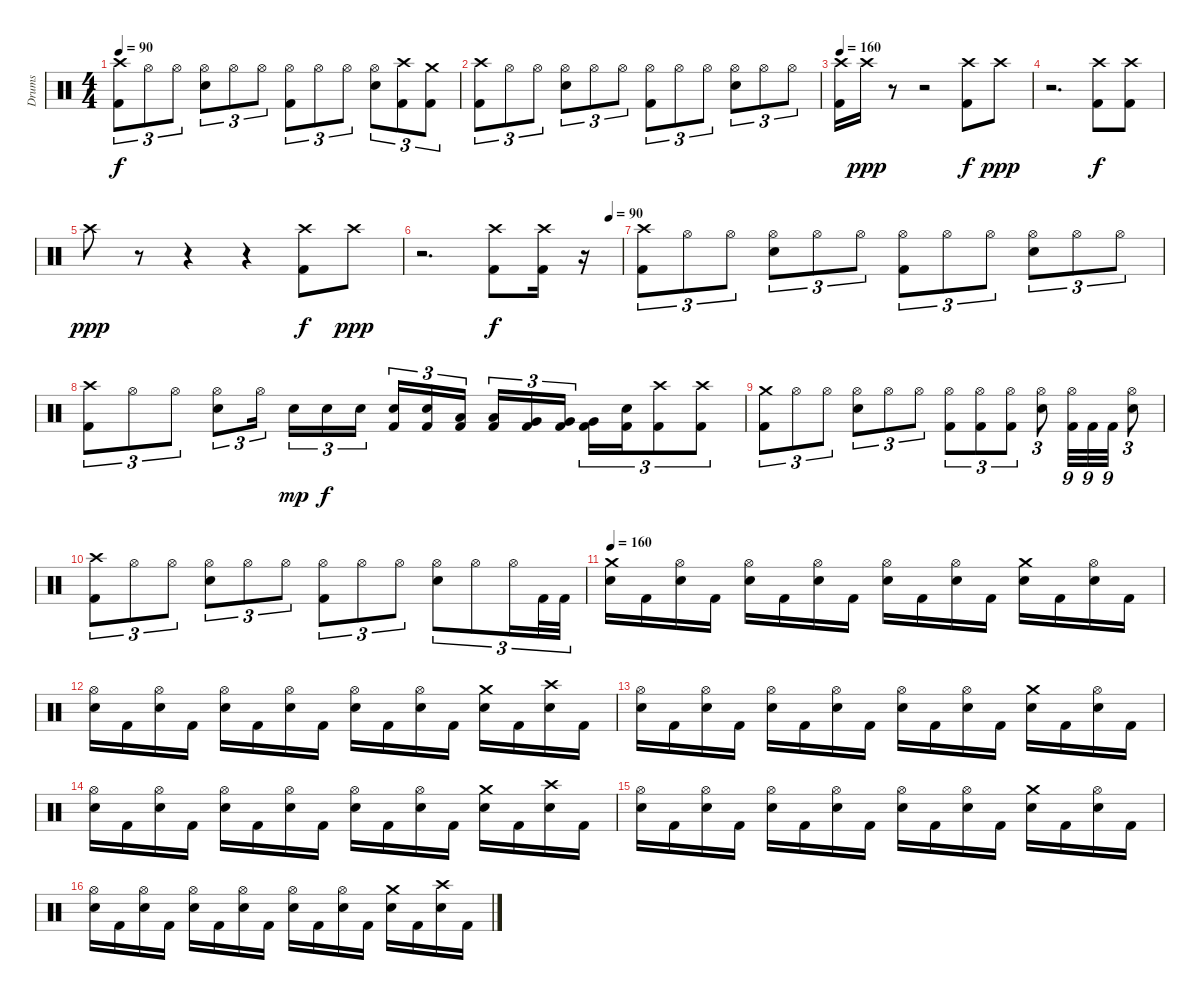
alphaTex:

\track ("Drums" "Drums") {instrument percussion}
\staff {score}
\articulation defaults
\ts (4 4)
\tempo 90
\clef neutral
\ks c
("Crash high (hit)" "Kick (hit) 2").8{tu (3 2) dy f} "Hi-Hat (open)".8{tu (3 2)} "Hi-Hat (open)".8{tu (3 2)} ("Hi-Hat (open)" "Electric Snare (hit)").8{tu (3 2)} "Hi-Hat (open)".8{tu (3 2)} "Hi-Hat (open)".8{tu (3 2)} ("Hi-Hat (open)" "Kick (hit) 2").8{tu (3 2)} "Hi-Hat (open)".8{tu (3 2)} "Hi-Hat (open)".8{tu (3 2)} ("Hi-Hat (open)" "Electric Snare (hit)").8{tu (3 2)} ("Crash high (hit)" "Kick (hit) 2").8{tu (3 2)} ("Crash medium (hit)" "Kick (hit) 2").8{tu (3 2)} |
("Crash high (hit)" "Kick (hit) 2").8{tu (3 2)} "Hi-Hat (open)".8{tu (3 2)} "Hi-Hat (open)".8{tu (3 2)} ("Hi-Hat (open)" "Electric Snare (hit)").8{tu (3 2)} "Hi-Hat (open)".8{tu (3 2)} "Hi-Hat (open)".8{tu (3 2)} ("Hi-Hat (open)" "Kick (hit) 2").8{tu (3 2)} "Hi-Hat (open)".8{tu (3 2)} "Hi-Hat (open)".8{tu (3 2)} ("Hi-Hat (open)" "Electric Snare (hit)").8{tu (3 2)} "Hi-Hat (open)".8{tu (3 2)} "Hi-Hat (open)".8{tu (3 2)} |
\tempo 160
("Crash high (hit)" "Kick (hit) 2").16 "Crash high (hit)".16{dy ppp} r.8 r.2 ("Crash high (hit)" "Kick (hit) 2").8{dy f} "Crash high (hit)".8{dy ppp} |
r.2{d} ("Crash high (hit)" "Kick (hit) 2").8{dy f} ("Crash high (hit)" "Kick (hit) 2").8 |
"Crash high (hit)".8{dy ppp} r.8 r.4 r.4 ("Crash high (hit)" "Kick (hit) 2").8{dy f} "Crash high (hit)".8{dy ppp} |
\tempo (90 0.9375)
r.2{d} ("Crash high (hit)" "Kick (hit) 2").8{dy f} ("Crash high (hit)" "Kick (hit) 2").16 r.16 |
("Crash high (hit)" "Kick (hit) 2").8{tu (3 2)} "Hi-Hat (open)".8{tu (3 2)} "Hi-Hat (open)".8{tu (3 2)} ("Hi-Hat (open)" "Electric Snare (hit)").8{tu (3 2)} "Hi-Hat (open)".8{tu (3 2)} "Hi-Hat (open)".8{tu (3 2)} ("Hi-Hat (open)" "Kick (hit) 2").8{tu (3 2)} "Hi-Hat (open)".8{tu (3 2)} "Hi-Hat (open)".8{tu (3 2)} ("Hi-Hat (open)" "Electric Snare (hit)").8{tu (3 2)} "Hi-Hat (open)".8{tu (3 2)} "Hi-Hat (open)".8{tu (3 2)} |
("Crash high (hit)" "Kick (hit) 2").8{tu (3 2)} "Hi-Hat (open)".8{tu (3 2)} "Hi-Hat (open)".8{tu (3 2)} ("Hi-Hat (open)" "Electric Snare (hit)").8{tu (3 2)} "Hi-Hat (open)".16{tu (3 2)} "Electric Snare (hit)".16{tu (3 2) dy mp} "Electric Snare (hit)".16{tu (3 2) dy f} "Electric Snare (hit)".16{tu (3 2)} ("Electric Snare (hit)" "Kick (hit) 2").16{tu (3 2)} ("Electric Snare (hit)" "Kick (hit) 2").16{tu (3 2)} ("Low Tom (hit)" "Kick (hit) 2").16{tu (3 2)} ("Low Tom (hit)" "Kick (hit) 2").16{tu (3 2)} ("Very Low Tom (hit)" "Kick (hit) 2").16{tu (3 2)} ("Very Low Tom (hit)" "Kick (hit) 2").16{tu (3 2)} ("Very Low Tom (hit)" "Kick (hit) 2").16{tu (3 2)} ("Electric Snare (hit)" "Kick (hit) 2").16{tu (3 2)} ("Crash high (hit)" "Kick (hit) 2").8{tu (3 2)} ("Crash high (hit)" "Kick (hit) 2").8{tu (3 2)} |
("Crash medium (hit)" "Kick (hit) 2").8{tu (3 2)} "Hi-Hat (open)".8{tu (3 2)} "Hi-Hat (open)".8{tu (3 2)} ("Hi-Hat (open)" "Electric Snare (hit)").8{tu (3 2)} "Hi-Hat (open)".8{tu (3 2)} "Hi-Hat (open)".8{tu (3 2)} ("Hi-Hat (open)" "Kick (hit) 2").8{tu (3 2)} ("Hi-Hat (open)" "Kick (hit) 2").8{tu (3 2)} ("Hi-Hat (open)" "Kick (hit) 2").8{tu (3 2)} ("Hi-Hat (open)" "Electric Snare (hit)").8{tu (3 2)} ("Hi-Hat (open)" "Kick (hit) 2").32{tu (9 8)} "Kick (hit) 2".32{tu (9 8)} "Kick (hit) 2".32{tu (9 8)} ("Hi-Hat (open)" "Electric Snare (hit)").8{tu (3 2)} |
("Crash high (hit)" "Kick (hit) 2").8{tu (3 2)} "Hi-Hat (open)".8{tu (3 2)} "Hi-Hat (open)".8{tu (3 2)} ("Hi-Hat (open)" "Electric Snare (hit)").8{tu (3 2)} "Hi-Hat (open)".8{tu (3 2)} "Hi-Hat (open)".8{tu (3 2)} ("Hi-Hat (open)" "Kick (hit) 2").8{tu (3 2)} "Hi-Hat (open)".8{tu (3 2)} "Hi-Hat (open)".8{tu (3 2)} ("Hi-Hat (open)" "Electric Snare (hit)").8{tu (3 2)} "Hi-Hat (open)".8{tu (3 2)} "Hi-Hat (open)".16{tu (3 2)} "Kick (hit) 2".32{tu (3 2)} "Kick (hit) 2".32{tu (3 2)} |
\tempo 160
("Crash medium (hit)" "Electric Snare (hit)").16 "Kick (hit) 2".16 ("Hi-Hat (open)" "Electric Snare (hit)").16 "Kick (hit) 2".16 ("Hi-Hat (open)" "Electric Snare (hit)").16 "Kick (hit) 2".16 ("Hi-Hat (open)" "Electric Snare (hit)").16 "Kick (hit) 2".16 ("Hi-Hat (open)" "Electric Snare (hit)").16 "Kick (hit) 2".16 ("Hi-Hat (open)" "Electric Snare (hit)").16 "Kick (hit) 2".16 ("Crash medium (hit)" "Electric Snare (hit)").16 "Kick (hit) 2".16 ("Hi-Hat (open)" "Electric Snare (hit)").16 "Kick (hit) 2".16 |
("Hi-Hat (open)" "Electric Snare (hit)").16 "Kick (hit) 2".16 ("Hi-Hat (open)" "Electric Snare (hit)").16 "Kick (hit) 2".16 ("Hi-Hat (open)" "Electric Snare (hit)").16 "Kick (hit) 2".16 ("Hi-Hat (open)" "Electric Snare (hit)").16 "Kick (hit) 2".16 ("Hi-Hat (open)" "Electric Snare (hit)").16 "Kick (hit) 2".16 ("Hi-Hat (open)" "Electric Snare (hit)").16 "Kick (hit) 2".16 ("Crash medium (hit)" "Electric Snare (hit)").16 "Kick (hit) 2".16 ("Crash high (hit)" "Electric Snare (hit)").16 "Kick (hit) 2".16 |
("Hi-Hat (open)" "Electric Snare (hit)").16 "Kick (hit) 2".16 ("Hi-Hat (open)" "Electric Snare (hit)").16 "Kick (hit) 2".16 ("Hi-Hat (open)" "Electric Snare (hit)").16 "Kick (hit) 2".16 ("Hi-Hat (open)" "Electric Snare (hit)").16 "Kick (hit) 2".16 ("Hi-Hat (open)" "Electric Snare (hit)").16 "Kick (hit) 2".16 ("Hi-Hat (open)" "Electric Snare (hit)").16 "Kick (hit) 2".16 ("Crash medium (hit)" "Electric Snare (hit)").16 "Kick (hit) 2".16 ("Hi-Hat (open)" "Electric Snare (hit)").16 "Kick (hit) 2".16 |
("Hi-Hat (open)" "Electric Snare (hit)").16 "Kick (hit) 2".16 ("Hi-Hat (open)" "Electric Snare (hit)").16 "Kick (hit) 2".16 ("Hi-Hat (open)" "Electric Snare (hit)").16 "Kick (hit) 2".16 ("Hi-Hat (open)" "Electric Snare (hit)").16 "Kick (hit) 2".16 ("Hi-Hat (open)" "Electric Snare (hit)").16 "Kick (hit) 2".16 ("Hi-Hat (open)" "Electric Snare (hit)").16 "Kick (hit) 2".16 ("Crash medium (hit)" "Electric Snare (hit)").16 "Kick (hit) 2".16 ("Crash high (hit)" "Electric Snare (hit)").16 "Kick (hit) 2".16 |
("Hi-Hat (open)" "Electric Snare (hit)").16 "Kick (hit) 2".16 ("Hi-Hat (open)" "Electric Snare (hit)").16 "Kick (hit) 2".16 ("Hi-Hat (open)" "Electric Snare (hit)").16 "Kick (hit) 2".16 ("Hi-Hat (open)" "Electric Snare (hit)").16 "Kick (hit) 2".16 ("Hi-Hat (open)" "Electric Snare (hit)").16 "Kick (hit) 2".16 ("Hi-Hat (open)" "Electric Snare (hit)").16 "Kick (hit) 2".16 ("Crash medium (hit)" "Electric Snare (hit)").16 "Kick (hit) 2".16 ("Hi-Hat (open)" "Electric Snare (hit)").16 "Kick (hit) 2".16 |
("Hi-Hat (open)" "Electric Snare (hit)").16 "Kick (hit) 2".16 ("Hi-Hat (open)" "Electric Snare (hit)").16 "Kick (hit) 2".16 ("Hi-Hat (open)" "Electric Snare (hit)").16 "Kick (hit) 2".16 ("Hi-Hat (open)" "Electric Snare (hit)").16 "Kick (hit) 2".16 ("Hi-Hat (open)" "Electric Snare (hit)").16 "Kick (hit) 2".16 ("Hi-Hat (open)" "Electric Snare (hit)").16 "Kick (hit) 2".16 ("Crash medium (hit)" "Electric Snare (hit)").16 "Kick (hit) 2".16 ("Crash high (hit)" "Electric Snare (hit)").16 "Kick (hit) 2".16
